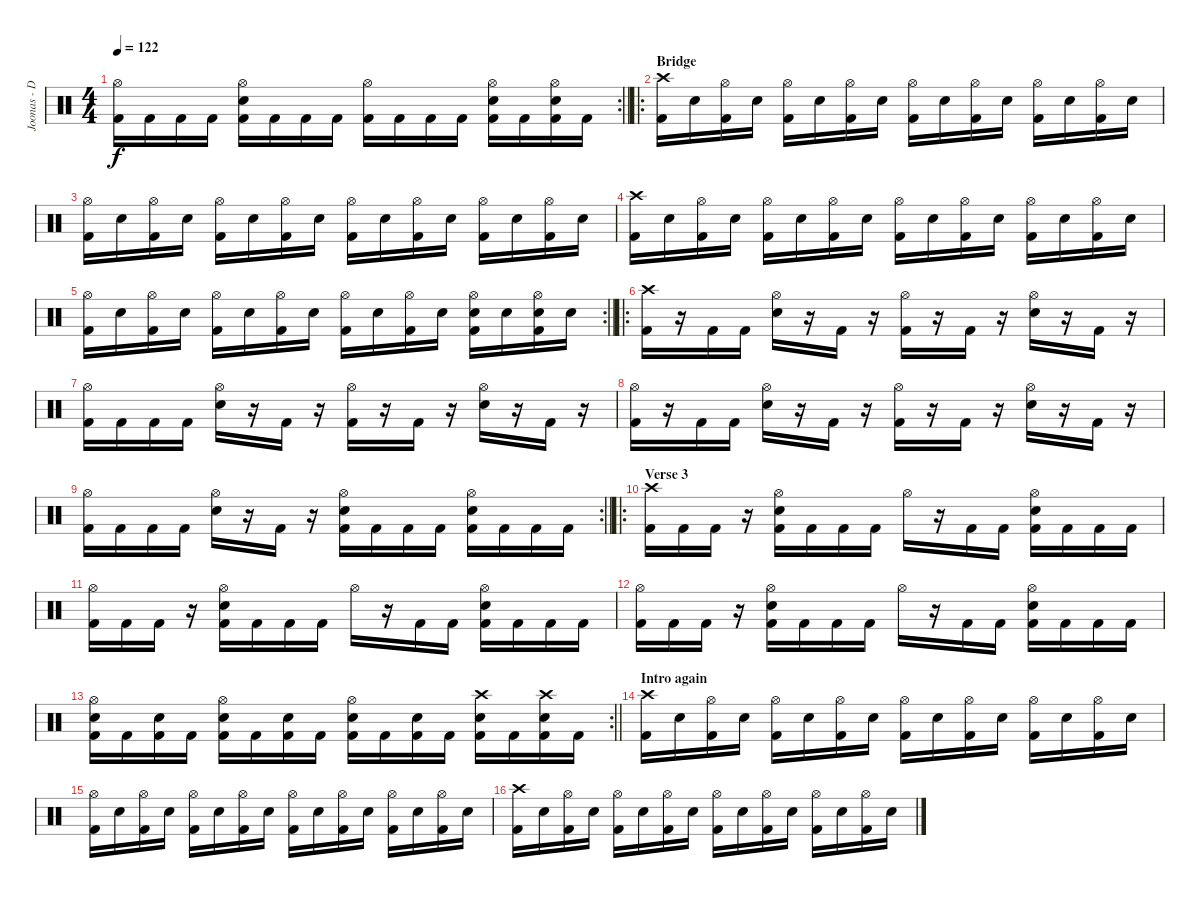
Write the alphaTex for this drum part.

\track ("Joonas - Drums" "Joonas - D") {instrument percussion}
\staff {score}
\articulation defaults
\rc 2
\ts (4 4)
\tempo 122
\clef neutral
\barLineRight lightlight
\ks c
("Hi-Hat (open)" "Kick (hit) 2").16{dy f} "Kick (hit) 2".16 "Kick (hit) 2".16 "Kick (hit) 2".16 ("Hi-Hat (open)" "Electric Snare (hit)" "Kick (hit) 2").16 "Kick (hit) 2".16 "Kick (hit) 2".16 "Kick (hit) 2".16 ("Hi-Hat (open)" "Kick (hit) 2").16 "Kick (hit) 2".16 "Kick (hit) 2".16 "Kick (hit) 2".16 ("Hi-Hat (open)" "Electric Snare (hit)" "Kick (hit) 2").16 "Kick (hit) 2".16 ("Hi-Hat (open)" "Electric Snare (hit)" "Kick (hit) 2").16 "Kick (hit) 2".16 |
\ro
\section ("" "Bridge")
("Crash high (hit)" "Kick (hit) 2").16 "Electric Snare (hit)".16 ("Hi-Hat (open)" "Kick (hit) 2").16 "Electric Snare (hit)".16 ("Hi-Hat (open)" "Kick (hit) 2").16 "Electric Snare (hit)".16 ("Hi-Hat (open)" "Kick (hit) 2").16 "Electric Snare (hit)".16 ("Hi-Hat (open)" "Kick (hit) 2").16 "Electric Snare (hit)".16 ("Hi-Hat (open)" "Kick (hit) 2").16 "Electric Snare (hit)".16 ("Hi-Hat (open)" "Kick (hit) 2").16 "Electric Snare (hit)".16 ("Hi-Hat (open)" "Kick (hit) 2").16 "Electric Snare (hit)".16 |
("Hi-Hat (open)" "Kick (hit) 2").16 "Electric Snare (hit)".16 ("Hi-Hat (open)" "Kick (hit) 2").16 "Electric Snare (hit)".16 ("Hi-Hat (open)" "Kick (hit) 2").16 "Electric Snare (hit)".16 ("Hi-Hat (open)" "Kick (hit) 2").16 "Electric Snare (hit)".16 ("Hi-Hat (open)" "Kick (hit) 2").16 "Electric Snare (hit)".16 ("Hi-Hat (open)" "Kick (hit) 2").16 "Electric Snare (hit)".16 ("Hi-Hat (open)" "Kick (hit) 2").16 "Electric Snare (hit)".16 ("Hi-Hat (open)" "Kick (hit) 2").16 "Electric Snare (hit)".16 |
("Crash high (hit)" "Kick (hit) 2").16 "Electric Snare (hit)".16 ("Hi-Hat (open)" "Kick (hit) 2").16 "Electric Snare (hit)".16 ("Hi-Hat (open)" "Kick (hit) 2").16 "Electric Snare (hit)".16 ("Hi-Hat (open)" "Kick (hit) 2").16 "Electric Snare (hit)".16 ("Hi-Hat (open)" "Kick (hit) 2").16 "Electric Snare (hit)".16 ("Hi-Hat (open)" "Kick (hit) 2").16 "Electric Snare (hit)".16 ("Hi-Hat (open)" "Kick (hit) 2").16 "Electric Snare (hit)".16 ("Hi-Hat (open)" "Kick (hit) 2").16 "Electric Snare (hit)".16 |
\rc 2
\barLineRight lightlight
("Hi-Hat (open)" "Kick (hit) 2").16 "Electric Snare (hit)".16 ("Hi-Hat (open)" "Kick (hit) 2").16 "Electric Snare (hit)".16 ("Hi-Hat (open)" "Kick (hit) 2").16 "Electric Snare (hit)".16 ("Hi-Hat (open)" "Kick (hit) 2").16 "Electric Snare (hit)".16 ("Hi-Hat (open)" "Kick (hit) 2").16 "Electric Snare (hit)".16 ("Hi-Hat (open)" "Kick (hit) 2").16 "Electric Snare (hit)".16 ("Hi-Hat (open)" "Electric Snare (hit)" "Kick (hit) 2").16 "Electric Snare (hit)".16 ("Hi-Hat (open)" "Electric Snare (hit)" "Kick (hit) 2").16 "Electric Snare (hit)".16 |
\ro
("Crash high (hit)" "Kick (hit) 2").16 r.16 "Kick (hit) 2".16 "Kick (hit) 2".16 ("Hi-Hat (open)" "Electric Snare (hit)").16 r.16 "Kick (hit) 2".16 r.16 ("Hi-Hat (open)" "Kick (hit) 2").16 r.16 "Kick (hit) 2".16 r.16 ("Hi-Hat (open)" "Electric Snare (hit)").16 r.16 "Kick (hit) 2".16 r.16 |
("Hi-Hat (open)" "Kick (hit) 2").16 "Kick (hit) 2".16 "Kick (hit) 2".16 "Kick (hit) 2".16 ("Hi-Hat (open)" "Electric Snare (hit)").16 r.16 "Kick (hit) 2".16 r.16 ("Hi-Hat (open)" "Kick (hit) 2").16 r.16 "Kick (hit) 2".16 r.16 ("Hi-Hat (open)" "Electric Snare (hit)").16 r.16 "Kick (hit) 2".16 r.16 |
("Hi-Hat (open)" "Kick (hit) 2").16 r.16 "Kick (hit) 2".16 "Kick (hit) 2".16 ("Hi-Hat (open)" "Electric Snare (hit)").16 r.16 "Kick (hit) 2".16 r.16 ("Hi-Hat (open)" "Kick (hit) 2").16 r.16 "Kick (hit) 2".16 r.16 ("Hi-Hat (open)" "Electric Snare (hit)").16 r.16 "Kick (hit) 2".16 r.16 |
\rc 2
\barLineRight lightlight
("Hi-Hat (open)" "Kick (hit) 2").16 "Kick (hit) 2".16 "Kick (hit) 2".16 "Kick (hit) 2".16 ("Hi-Hat (open)" "Electric Snare (hit)").16 r.16 "Kick (hit) 2".16 r.16 ("Hi-Hat (open)" "Electric Snare (hit)" "Kick (hit) 2").16 "Kick (hit) 2".16 "Kick (hit) 2".16 "Kick (hit) 2".16 ("Hi-Hat (open)" "Electric Snare (hit)" "Kick (hit) 2").16 "Kick (hit) 2".16 "Kick (hit) 2".16 "Kick (hit) 2".16 |
\ro
\section ("" "Verse 3")
("Crash high (hit)" "Kick (hit) 2").16 "Kick (hit) 2".16 "Kick (hit) 2".16 r.16 ("Hi-Hat (open)" "Electric Snare (hit)" "Kick (hit) 2").16 "Kick (hit) 2".16 "Kick (hit) 2".16 "Kick (hit) 2".16 "Hi-Hat (open)".16 r.16 "Kick (hit) 2".16 "Kick (hit) 2".16 ("Hi-Hat (open)" "Electric Snare (hit)" "Kick (hit) 2").16 "Kick (hit) 2".16 "Kick (hit) 2".16 "Kick (hit) 2".16 |
("Hi-Hat (open)" "Kick (hit) 2").16 "Kick (hit) 2".16 "Kick (hit) 2".16 r.16 ("Hi-Hat (open)" "Electric Snare (hit)" "Kick (hit) 2").16 "Kick (hit) 2".16 "Kick (hit) 2".16 "Kick (hit) 2".16 "Hi-Hat (open)".16 r.16 "Kick (hit) 2".16 "Kick (hit) 2".16 ("Hi-Hat (open)" "Electric Snare (hit)" "Kick (hit) 2").16 "Kick (hit) 2".16 "Kick (hit) 2".16 "Kick (hit) 2".16 |
("Hi-Hat (open)" "Kick (hit) 2").16 "Kick (hit) 2".16 "Kick (hit) 2".16 r.16 ("Hi-Hat (open)" "Electric Snare (hit)" "Kick (hit) 2").16 "Kick (hit) 2".16 "Kick (hit) 2".16 "Kick (hit) 2".16 "Hi-Hat (open)".16 r.16 "Kick (hit) 2".16 "Kick (hit) 2".16 ("Hi-Hat (open)" "Electric Snare (hit)" "Kick (hit) 2").16 "Kick (hit) 2".16 "Kick (hit) 2".16 "Kick (hit) 2".16 |
\rc 2
\barLineRight lightlight
("Hi-Hat (open)" "Electric Snare (hit)" "Kick (hit) 2").16 "Kick (hit) 2".16 ("Electric Snare (hit)" "Kick (hit) 2").16 "Kick (hit) 2".16 ("Hi-Hat (open)" "Electric Snare (hit)" "Kick (hit) 2").16 "Kick (hit) 2".16 ("Electric Snare (hit)" "Kick (hit) 2").16 "Kick (hit) 2".16 ("Hi-Hat (open)" "Electric Snare (hit)" "Kick (hit) 2").16 "Kick (hit) 2".16 ("Electric Snare (hit)" "Kick (hit) 2").16 "Kick (hit) 2".16 ("Crash high (hit)" "Electric Snare (hit)" "Kick (hit) 2").16 "Kick (hit) 2".16 ("Crash high (hit)" "Electric Snare (hit)" "Kick (hit) 2").16 "Kick (hit) 2".16 |
\section ("" "Intro again")
("Crash high (hit)" "Kick (hit) 2").16 "Electric Snare (hit)".16 ("Hi-Hat (open)" "Kick (hit) 2").16 "Electric Snare (hit)".16 ("Hi-Hat (open)" "Kick (hit) 2").16 "Electric Snare (hit)".16 ("Hi-Hat (open)" "Kick (hit) 2").16 "Electric Snare (hit)".16 ("Hi-Hat (open)" "Kick (hit) 2").16 "Electric Snare (hit)".16 ("Hi-Hat (open)" "Kick (hit) 2").16 "Electric Snare (hit)".16 ("Hi-Hat (open)" "Kick (hit) 2").16 "Electric Snare (hit)".16 ("Hi-Hat (open)" "Kick (hit) 2").16 "Electric Snare (hit)".16 |
("Hi-Hat (open)" "Kick (hit) 2").16 "Electric Snare (hit)".16 ("Hi-Hat (open)" "Kick (hit) 2").16 "Electric Snare (hit)".16 ("Hi-Hat (open)" "Kick (hit) 2").16 "Electric Snare (hit)".16 ("Hi-Hat (open)" "Kick (hit) 2").16 "Electric Snare (hit)".16 ("Hi-Hat (open)" "Kick (hit) 2").16 "Electric Snare (hit)".16 ("Hi-Hat (open)" "Kick (hit) 2").16 "Electric Snare (hit)".16 ("Hi-Hat (open)" "Kick (hit) 2").16 "Electric Snare (hit)".16 ("Hi-Hat (open)" "Kick (hit) 2").16 "Electric Snare (hit)".16 |
("Crash high (hit)" "Kick (hit) 2").16 "Electric Snare (hit)".16 ("Hi-Hat (open)" "Kick (hit) 2").16 "Electric Snare (hit)".16 ("Hi-Hat (open)" "Kick (hit) 2").16 "Electric Snare (hit)".16 ("Hi-Hat (open)" "Kick (hit) 2").16 "Electric Snare (hit)".16 ("Hi-Hat (open)" "Kick (hit) 2").16 "Electric Snare (hit)".16 ("Hi-Hat (open)" "Kick (hit) 2").16 "Electric Snare (hit)".16 ("Hi-Hat (open)" "Kick (hit) 2").16 "Electric Snare (hit)".16 ("Hi-Hat (open)" "Kick (hit) 2").16 "Electric Snare (hit)".16
